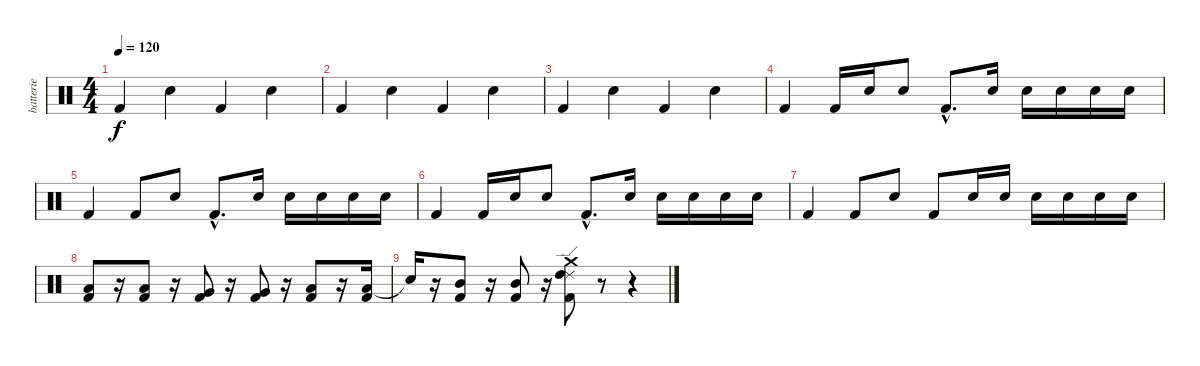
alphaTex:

\track ("batterie" "batterie") {instrument percussion}
\staff {score}
\articulation defaults
\ts (4 4)
\tempo 120
\clef neutral
\ks c "Kick (hit) 2".4{dy f} "Electric Snare (hit)".4 "Kick (hit) 2".4 "Electric Snare (hit)".4
|
"Kick (hit) 2".4 "Electric Snare (hit)".4 "Kick (hit) 2".4 "Electric Snare (hit)".4 |
"Kick (hit) 2".4 "Electric Snare (hit)".4 "Kick (hit) 2".4 "Electric Snare (hit)".4 |
"Kick (hit) 2".4 "Kick (hit) 2".16 "Electric Snare (hit)".16 "Electric Snare (hit)".8 "Kick (hit) 2"{hac}.8{d} "Electric Snare (hit)".16 "Electric Snare (hit)".16 "Electric Snare (hit)".16 "Electric Snare (hit)".16 "Electric Snare (hit)".16 |
"Kick (hit) 2".4 "Kick (hit) 2".8 "Electric Snare (hit)".8 "Kick (hit) 2"{hac}.8{d} "Electric Snare (hit)".16 "Electric Snare (hit)".16 "Electric Snare (hit)".16 "Electric Snare (hit)".16 "Electric Snare (hit)".16 |
"Kick (hit) 2".4 "Kick (hit) 2".16 "Electric Snare (hit)".16 "Electric Snare (hit)".8 "Kick (hit) 2"{hac}.8{d} "Electric Snare (hit)".16 "Electric Snare (hit)".16 "Electric Snare (hit)".16 "Electric Snare (hit)".16 "Electric Snare (hit)".16 |
"Kick (hit) 2".4 "Kick (hit) 2".8 "Electric Snare (hit)".8 "Kick (hit) 2".8 "Electric Snare (hit)".16 "Electric Snare (hit)".16 "Electric Snare (hit)".16 "Electric Snare (hit)".16 "Electric Snare (hit)".16 "Electric Snare (hit)".16 |
("Low Floor Tom (hit)" "Kick (hit) 2").8 r.16 ("Low Floor Tom (hit)" "Kick (hit) 2").8 r.16 ("Very Low Tom (hit)" "Kick (hit) 2").8 r.16 ("Very Low Tom (hit)" "Kick (hit) 2").8 r.16 ("Low Tom (hit)" "Kick (hit) 2").8 r.16 ("Low Tom (hit)" "Kick (hit) 2").16 |
"Snare (hit)"{t}.16 r.16 ("Mid Tom (hit)" "Kick (hit) 2").8 r.16 ("Mid Tom (hit)" "Kick (hit) 2").8 r.16 ("Ride (edge) 2" "High Tom (hit)" "Crash medium (hit)" "Kick (hit) 2").8 r.8 r.4
